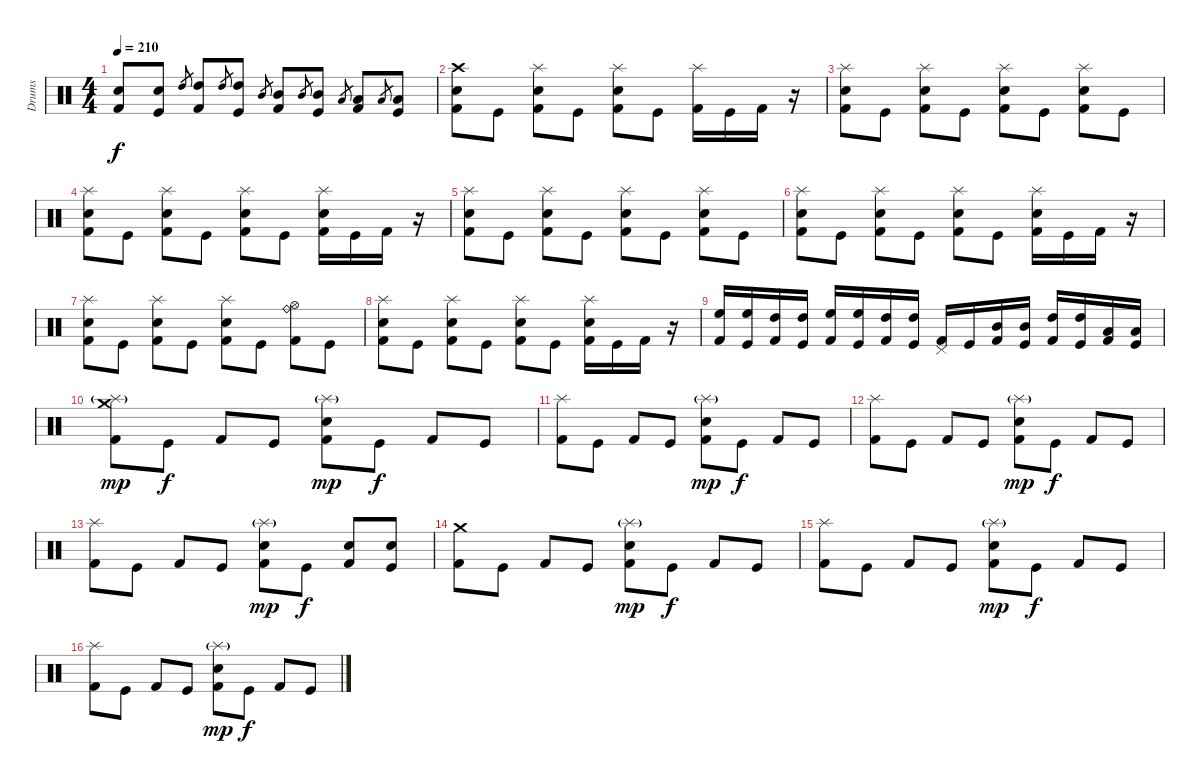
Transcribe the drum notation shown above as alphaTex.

\track ("Drums" "Drums") {instrument percussion}
\staff {score}
\articulation defaults
\ts (4 4)
\tempo 210
\clef neutral
\ks c
("Kick (hit) 2" "Electric Snare (hit)").8{dy f} ("Kick (hit)" "Electric Snare (hit)").8 "High Tom (hit)".8{gr} ("Kick (hit) 2" "High Tom (hit)").8 "High Tom (hit)".8{gr} ("Kick (hit)" "High Tom (hit)").8 "Mid Tom (hit)".8{gr} ("Kick (hit) 2" "Mid Tom (hit)").8 "Mid Tom (hit)".8{gr} ("Kick (hit)" "Mid Tom (hit)").8 "Low Tom (hit)".8{gr} ("Kick (hit) 2" "Low Tom (hit)").8 "Low Tom (hit)".8{gr} ("Kick (hit)" "Low Tom (hit)").8 |
("Kick (hit) 2" "Electric Snare (hit)" "Crash high (hit)").8 "Kick (hit)".8 ("Kick (hit) 2" "Electric Snare (hit)" "Splash (hit)").8 "Kick (hit)".8 ("Kick (hit) 2" "Electric Snare (hit)" "Splash (hit)").8 "Kick (hit)".8 ("Kick (hit) 2" "Splash (hit)").16 "Kick (hit)".16 "Kick (hit) 2".16 r.16 |
("Kick (hit) 2" "Splash (hit)" "Electric Snare (hit)").8 "Kick (hit)".8 ("Kick (hit) 2" "Splash (hit)" "Electric Snare (hit)").8 "Kick (hit)".8 ("Kick (hit) 2" "Splash (hit)" "Electric Snare (hit)").8 "Kick (hit)".8 ("Kick (hit) 2" "Splash (hit)" "Electric Snare (hit)").8 "Kick (hit)".8 |
("Kick (hit) 2" "Electric Snare (hit)" "Splash (hit)").8 "Kick (hit)".8 ("Kick (hit) 2" "Electric Snare (hit)" "Splash (hit)").8 "Kick (hit)".8 ("Kick (hit) 2" "Electric Snare (hit)" "Splash (hit)").8 "Kick (hit)".8 ("Kick (hit) 2" "Electric Snare (hit)" "Splash (hit)").16 "Kick (hit)".16 "Kick (hit) 2".16 r.16 |
("Kick (hit) 2" "Splash (hit)" "Electric Snare (hit)").8 "Kick (hit)".8 ("Kick (hit) 2" "Splash (hit)" "Electric Snare (hit)").8 "Kick (hit)".8 ("Kick (hit) 2" "Splash (hit)" "Electric Snare (hit)").8 "Kick (hit)".8 ("Kick (hit) 2" "Splash (hit)" "Electric Snare (hit)").8 "Kick (hit)".8 |
("Kick (hit) 2" "Electric Snare (hit)" "Splash (hit)").8 "Kick (hit)".8 ("Kick (hit) 2" "Electric Snare (hit)" "Splash (hit)").8 "Kick (hit)".8 ("Kick (hit) 2" "Electric Snare (hit)" "Splash (hit)").8 "Kick (hit)".8 ("Kick (hit) 2" "Electric Snare (hit)" "Splash (hit)").16 "Kick (hit)".16 "Kick (hit) 2".16 r.16 |
("Kick (hit) 2" "Splash (hit)" "Electric Snare (hit)").8 "Kick (hit)".8 ("Kick (hit) 2" "Splash (hit)" "Electric Snare (hit)").8 "Kick (hit)".8 ("Kick (hit) 2" "Splash (hit)" "Electric Snare (hit)").8 "Kick (hit)".8 ("Kick (hit) 2" "Ride (bell)" "Hi-Hat (open)").8 "Kick (hit)".8 |
("Kick (hit) 2" "Electric Snare (hit)" "Splash (hit)").8 "Kick (hit)".8 ("Kick (hit) 2" "Electric Snare (hit)" "Splash (hit)").8 "Kick (hit)".8 ("Kick (hit) 2" "Electric Snare (hit)" "Splash (hit)").8 "Kick (hit)".8 ("Kick (hit) 2" "Electric Snare (hit)" "Splash (hit)").16 "Kick (hit)".16 "Kick (hit) 2".16 r.16 |
("Kick (hit) 2" "High Floor Tom (hit)").16 ("Kick (hit)" "High Floor Tom (hit)").16 ("Kick (hit) 2" "High Tom (hit)").16 ("Kick (hit)" "High Tom (hit)").16 ("Kick (hit) 2" "High Floor Tom (hit)").16 ("Kick (hit)" "High Floor Tom (hit)").16 ("Kick (hit) 2" "High Tom (hit)").16 ("Kick (hit)" "High Tom (hit)").16 ("Kick (hit) 2" "Pedal Hi-Hat (hit)").16 "Kick (hit)".16 ("Kick (hit) 2" "Mid Tom (hit)").16 ("Kick (hit)" "Mid Tom (hit)").16 ("Kick (hit) 2" "High Tom (hit)").16 ("Kick (hit)" "High Tom (hit)").16 ("Kick (hit) 2" "Low Tom (hit)").16 ("Kick (hit)" "Low Tom (hit)").16 |
("Kick (hit) 2" "Crash medium (hit)" "Splash (hit)"{g}).8{dy mp} "Kick (hit)".8{dy f} "Kick (hit) 2".8 "Kick (hit)".8 ("Kick (hit) 2" "Electric Snare (hit)" "Splash (hit)"{g}).8{dy mp} "Kick (hit)".8{dy f} "Kick (hit) 2".8 "Kick (hit)".8 |
("Kick (hit) 2" "Splash (hit)").8 "Kick (hit)".8 "Kick (hit) 2".8 "Kick (hit)".8 ("Kick (hit) 2" "Electric Snare (hit)" "Splash (hit)"{g}).8{dy mp} "Kick (hit)".8{dy f} "Kick (hit) 2".8 "Kick (hit)".8 |
("Kick (hit) 2" "Splash (hit)").8 "Kick (hit)".8 "Kick (hit) 2".8 "Kick (hit)".8 ("Kick (hit) 2" "Electric Snare (hit)" "Splash (hit)"{g}).8{dy mp} "Kick (hit)".8{dy f} "Kick (hit) 2".8 "Kick (hit)".8 |
("Kick (hit) 2" "Splash (hit)").8 "Kick (hit)".8 "Kick (hit) 2".8 "Kick (hit)".8 ("Kick (hit) 2" "Electric Snare (hit)" "Splash (hit)"{g}).8{dy mp} "Kick (hit)".8{dy f} ("Kick (hit) 2" "Electric Snare (hit)").8 ("Kick (hit)" "Electric Snare (hit)").8 |
("Kick (hit) 2" "Crash medium (hit)").8 "Kick (hit)".8 "Kick (hit) 2".8 "Kick (hit)".8 ("Kick (hit) 2" "Electric Snare (hit)" "Splash (hit)"{g}).8{dy mp} "Kick (hit)".8{dy f} "Kick (hit) 2".8 "Kick (hit)".8 |
("Kick (hit) 2" "Splash (hit)").8 "Kick (hit)".8 "Kick (hit) 2".8 "Kick (hit)".8 ("Kick (hit) 2" "Electric Snare (hit)" "Splash (hit)"{g}).8{dy mp} "Kick (hit)".8{dy f} "Kick (hit) 2".8 "Kick (hit)".8 |
("Kick (hit) 2" "Splash (hit)").8 "Kick (hit)".8 "Kick (hit) 2".8 "Kick (hit)".8 ("Kick (hit) 2" "Electric Snare (hit)" "Splash (hit)"{g}).8{dy mp} "Kick (hit)".8{dy f} "Kick (hit) 2".8 "Kick (hit)".8
